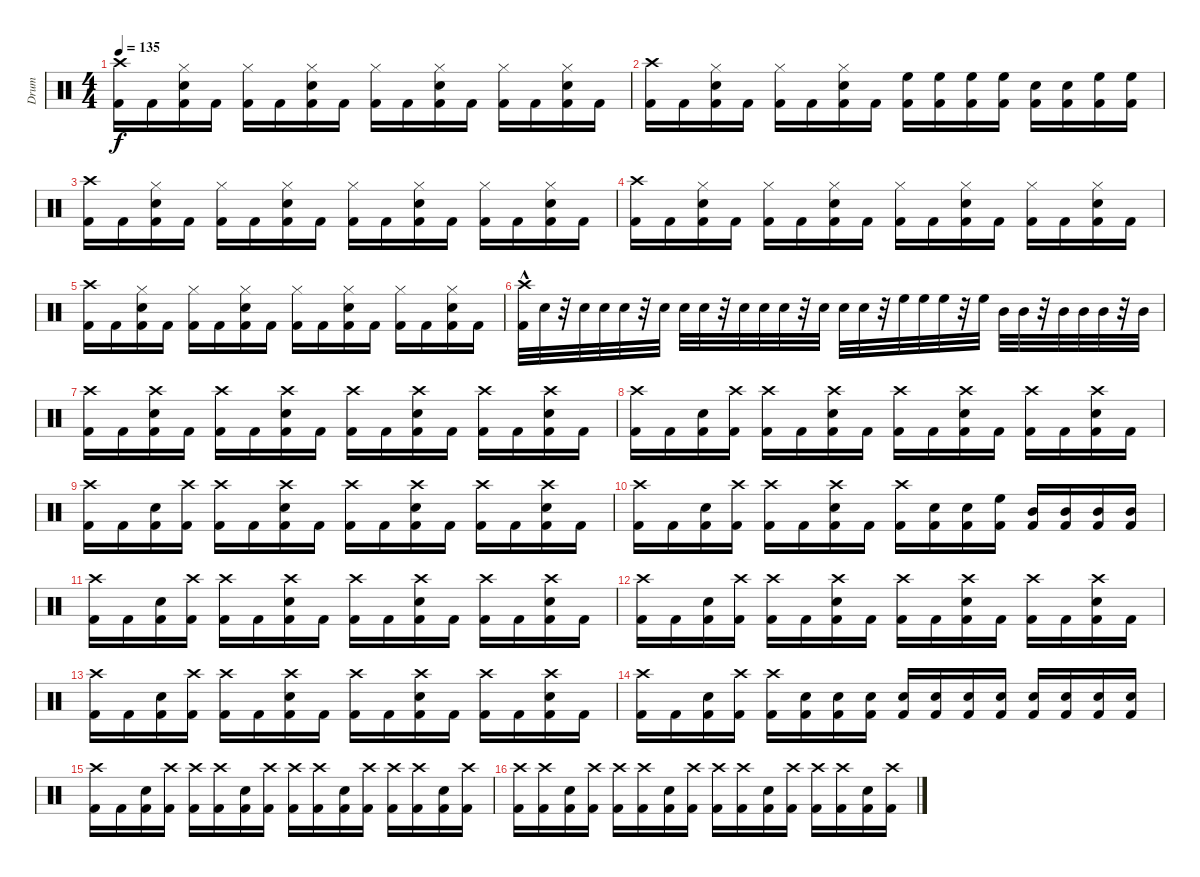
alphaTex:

\track ("Drum" "Drum") {instrument percussion}
\staff {score}
\articulation defaults
\ts (4 4)
\tempo 135
\clef neutral
\ks c
("Kick (hit) 2" "Crash high (hit)").16{dy f} "Kick (hit) 2".16 ("Kick (hit) 2" "Hi-Hat (closed)" "Snare (hit) 2").16 "Kick (hit) 2".16 ("Kick (hit) 2" "Hi-Hat (closed)").16 "Kick (hit) 2".16 ("Kick (hit) 2" "Hi-Hat (closed)" "Snare (hit) 2").16 "Kick (hit) 2".16 ("Kick (hit) 2" "Hi-Hat (closed)").16 "Kick (hit) 2".16 ("Kick (hit) 2" "Hi-Hat (closed)" "Snare (hit) 2").16 "Kick (hit) 2".16 ("Kick (hit) 2" "Hi-Hat (closed)").16 "Kick (hit) 2".16 ("Kick (hit) 2" "Hi-Hat (closed)" "Snare (hit) 2").16 "Kick (hit) 2".16 |
("Kick (hit) 2" "Crash high (hit)").16 "Kick (hit) 2".16 ("Kick (hit) 2" "Hi-Hat (closed)" "Snare (hit) 2").16 "Kick (hit) 2".16 ("Kick (hit) 2" "Hi-Hat (closed)").16 "Kick (hit) 2".16 ("Kick (hit) 2" "Hi-Hat (closed)" "Snare (hit) 2").16 "Kick (hit) 2".16 ("Kick (hit) 2" "High Floor Tom (hit)").16 ("Kick (hit) 2" "High Floor Tom (hit)").16 ("Kick (hit) 2" "High Floor Tom (hit)").16 ("Kick (hit) 2" "High Floor Tom (hit)").16 ("Kick (hit) 2" "Snare (hit) 2").16 ("Kick (hit) 2" "Snare (hit) 2").16 ("Kick (hit) 2" "High Floor Tom (hit)").16 ("Kick (hit) 2" "High Floor Tom (hit)").16 |
("Kick (hit) 2" "Crash high (hit)").16 "Kick (hit) 2".16 ("Kick (hit) 2" "Hi-Hat (closed)" "Snare (hit) 2").16 "Kick (hit) 2".16 ("Kick (hit) 2" "Hi-Hat (closed)").16 "Kick (hit) 2".16 ("Kick (hit) 2" "Hi-Hat (closed)" "Snare (hit) 2").16 "Kick (hit) 2".16 ("Kick (hit) 2" "Hi-Hat (closed)").16 "Kick (hit) 2".16 ("Kick (hit) 2" "Hi-Hat (closed)" "Snare (hit) 2").16 "Kick (hit) 2".16 ("Kick (hit) 2" "Hi-Hat (closed)").16 "Kick (hit) 2".16 ("Kick (hit) 2" "Hi-Hat (closed)" "Snare (hit) 2").16 "Kick (hit) 2".16 |
("Kick (hit) 2" "Crash high (hit)").16 "Kick (hit) 2".16 ("Kick (hit) 2" "Hi-Hat (closed)" "Snare (hit) 2").16 "Kick (hit) 2".16 ("Kick (hit) 2" "Hi-Hat (closed)").16 "Kick (hit) 2".16 ("Kick (hit) 2" "Hi-Hat (closed)" "Snare (hit) 2").16 "Kick (hit) 2".16 ("Kick (hit) 2" "Hi-Hat (closed)").16 "Kick (hit) 2".16 ("Kick (hit) 2" "Hi-Hat (closed)" "Snare (hit) 2").16 "Kick (hit) 2".16 ("Kick (hit) 2" "Hi-Hat (closed)").16 "Kick (hit) 2".16 ("Kick (hit) 2" "Hi-Hat (closed)" "Snare (hit) 2").16 "Kick (hit) 2".16 |
("Kick (hit) 2" "Crash high (hit)").16 "Kick (hit) 2".16 ("Kick (hit) 2" "Hi-Hat (closed)" "Snare (hit) 2").16 "Kick (hit) 2".16 ("Kick (hit) 2" "Hi-Hat (closed)").16 "Kick (hit) 2".16 ("Kick (hit) 2" "Hi-Hat (closed)" "Snare (hit) 2").16 "Kick (hit) 2".16 ("Kick (hit) 2" "Hi-Hat (closed)").16 "Kick (hit) 2".16 ("Kick (hit) 2" "Hi-Hat (closed)" "Snare (hit) 2").16 "Kick (hit) 2".16 ("Kick (hit) 2" "Hi-Hat (closed)").16 "Kick (hit) 2".16 ("Kick (hit) 2" "Hi-Hat (closed)" "Snare (hit) 2").16 "Kick (hit) 2".16 |
("Kick (hit) 2"{hac} "Crash high (hit)").32 "Snare (hit) 2".32 r.32 "Snare (hit) 2".32 "Snare (hit) 2".32 "Snare (hit) 2".32 r.32 "Snare (hit) 2".32 "Snare (hit) 2".32 "Snare (hit) 2".32 r.32 "Snare (hit) 2".32 "Snare (hit) 2".32 "Snare (hit) 2".32 r.32 "Snare (hit) 2".32 "Snare (hit) 2".32 "Snare (hit) 2".32 r.32 "High Floor Tom (hit)".32 "High Floor Tom (hit)".32 "High Floor Tom (hit)".32 r.32 "High Floor Tom (hit)".32 "Mid Tom (hit)".32 "Mid Tom (hit)".32 r.32 "Mid Tom (hit)".32 "Mid Tom (hit)".32 "Mid Tom (hit)".32 r.32 "Mid Tom (hit)".32 |
("Kick (hit) 2" "Crash high (hit)").16 "Kick (hit) 2".16 ("Kick (hit) 2" "Crash high (hit)" "Snare (hit) 2").16 "Kick (hit) 2".16 ("Kick (hit) 2" "Crash high (hit)").16 "Kick (hit) 2".16 ("Kick (hit) 2" "Crash high (hit)" "Snare (hit) 2").16 "Kick (hit) 2".16 ("Kick (hit) 2" "Crash high (hit)").16 "Kick (hit) 2".16 ("Kick (hit) 2" "Crash high (hit)" "Snare (hit) 2").16 "Kick (hit) 2".16 ("Kick (hit) 2" "Crash high (hit)").16 "Kick (hit) 2".16 ("Kick (hit) 2" "Crash high (hit)" "Snare (hit) 2").16 "Kick (hit) 2".16 |
("Kick (hit) 2" "Crash high (hit)").16 "Kick (hit) 2".16 ("Kick (hit) 2" "Snare (hit) 2").16 ("Kick (hit) 2" "Crash high (hit)").16 ("Kick (hit) 2" "Crash high (hit)").16 "Kick (hit) 2".16 ("Kick (hit) 2" "Crash high (hit)" "Snare (hit) 2").16 "Kick (hit) 2".16 ("Kick (hit) 2" "Crash high (hit)").16 "Kick (hit) 2".16 ("Kick (hit) 2" "Crash high (hit)" "Snare (hit) 2").16 "Kick (hit) 2".16 ("Kick (hit) 2" "Crash high (hit)").16 "Kick (hit) 2".16 ("Kick (hit) 2" "Crash high (hit)" "Snare (hit) 2").16 "Kick (hit) 2".16 |
("Kick (hit) 2" "Crash high (hit)").16 "Kick (hit) 2".16 ("Kick (hit) 2" "Snare (hit) 2").16 ("Kick (hit) 2" "Crash high (hit)").16 ("Kick (hit) 2" "Crash high (hit)").16 "Kick (hit) 2".16 ("Kick (hit) 2" "Crash high (hit)" "Snare (hit) 2").16 "Kick (hit) 2".16 ("Kick (hit) 2" "Crash high (hit)").16 "Kick (hit) 2".16 ("Kick (hit) 2" "Crash high (hit)" "Snare (hit) 2").16 "Kick (hit) 2".16 ("Kick (hit) 2" "Crash high (hit)").16 "Kick (hit) 2".16 ("Kick (hit) 2" "Crash high (hit)" "Snare (hit) 2").16 "Kick (hit) 2".16 |
("Kick (hit) 2" "Crash high (hit)").16 "Kick (hit) 2".16 ("Kick (hit) 2" "Snare (hit) 2").16 ("Kick (hit) 2" "Crash high (hit)").16 ("Kick (hit) 2" "Crash high (hit)").16 "Kick (hit) 2".16 ("Kick (hit) 2" "Crash high (hit)" "Snare (hit) 2").16 "Kick (hit) 2".16 ("Kick (hit) 2" "Crash high (hit)").16 ("Kick (hit) 2" "Snare (hit) 2").16 ("Kick (hit) 2" "Snare (hit) 2").16 ("Kick (hit) 2" "High Floor Tom (hit)").16 ("Kick (hit) 2" "Mid Tom (hit)").16 ("Kick (hit) 2" "Mid Tom (hit)").16 ("Kick (hit) 2" "Mid Tom (hit)").16 ("Kick (hit) 2" "Mid Tom (hit)").16 |
("Kick (hit) 2" "Crash high (hit)").16 "Kick (hit) 2".16 ("Kick (hit) 2" "Snare (hit) 2").16 ("Kick (hit) 2" "Crash high (hit)").16 ("Kick (hit) 2" "Crash high (hit)").16 "Kick (hit) 2".16 ("Kick (hit) 2" "Crash high (hit)" "Snare (hit) 2").16 "Kick (hit) 2".16 ("Kick (hit) 2" "Crash high (hit)").16 "Kick (hit) 2".16 ("Kick (hit) 2" "Crash high (hit)" "Snare (hit) 2").16 "Kick (hit) 2".16 ("Kick (hit) 2" "Crash high (hit)").16 "Kick (hit) 2".16 ("Kick (hit) 2" "Crash high (hit)" "Snare (hit) 2").16 "Kick (hit) 2".16 |
("Kick (hit) 2" "Crash high (hit)").16 "Kick (hit) 2".16 ("Kick (hit) 2" "Snare (hit) 2").16 ("Kick (hit) 2" "Crash high (hit)").16 ("Kick (hit) 2" "Crash high (hit)").16 "Kick (hit) 2".16 ("Kick (hit) 2" "Crash high (hit)" "Snare (hit) 2").16 "Kick (hit) 2".16 ("Kick (hit) 2" "Crash high (hit)").16 "Kick (hit) 2".16 ("Kick (hit) 2" "Crash high (hit)" "Snare (hit) 2").16 "Kick (hit) 2".16 ("Kick (hit) 2" "Crash high (hit)").16 "Kick (hit) 2".16 ("Kick (hit) 2" "Crash high (hit)" "Snare (hit) 2").16 "Kick (hit) 2".16 |
("Kick (hit) 2" "Crash high (hit)").16 "Kick (hit) 2".16 ("Kick (hit) 2" "Snare (hit) 2").16 ("Kick (hit) 2" "Crash high (hit)").16 ("Kick (hit) 2" "Crash high (hit)").16 "Kick (hit) 2".16 ("Kick (hit) 2" "Crash high (hit)" "Snare (hit) 2").16 "Kick (hit) 2".16 ("Kick (hit) 2" "Crash high (hit)").16 "Kick (hit) 2".16 ("Kick (hit) 2" "Crash high (hit)" "Snare (hit) 2").16 "Kick (hit) 2".16 ("Kick (hit) 2" "Crash high (hit)").16 "Kick (hit) 2".16 ("Kick (hit) 2" "Crash high (hit)" "Snare (hit) 2").16 "Kick (hit) 2".16 |
("Crash high (hit)" "Kick (hit) 2").16 "Kick (hit) 2".16 ("Snare (hit) 2" "Kick (hit) 2").16 ("Crash high (hit)" "Kick (hit) 2").16 ("Kick (hit) 2" "Crash high (hit)").16 ("Kick (hit) 2" "Snare (hit) 2").16 ("Kick (hit) 2" "Snare (hit) 2").16 ("Kick (hit) 2" "Snare (hit) 2").16 ("Kick (hit) 2" "Snare (hit) 2").16 ("Kick (hit) 2" "Snare (hit) 2").16 ("Kick (hit) 2" "Snare (hit) 2").16 ("Kick (hit) 2" "Snare (hit) 2").16 ("Kick (hit) 2" "Snare (hit) 2").16 ("Kick (hit) 2" "Snare (hit) 2").16 ("Kick (hit) 2" "Snare (hit) 2").16 ("Kick (hit) 2" "Snare (hit) 2").16 |
("Crash high (hit)" "Kick (hit) 2").16 "Kick (hit) 2".16 ("Kick (hit) 2" "Snare (hit) 2").16 ("Kick (hit) 2" "Crash high (hit)").16 ("Kick (hit) 2" "Crash high (hit)").16 ("Kick (hit) 2" "Crash high (hit)").16 ("Kick (hit) 2" "Snare (hit) 2").16 ("Kick (hit) 2" "Crash high (hit)").16 ("Kick (hit) 2" "Crash high (hit)").16 ("Kick (hit) 2" "Crash high (hit)").16 ("Kick (hit) 2" "Snare (hit) 2").16 ("Kick (hit) 2" "Crash high (hit)").16 ("Kick (hit) 2" "Crash high (hit)").16 ("Kick (hit) 2" "Crash high (hit)").16 ("Kick (hit) 2" "Snare (hit) 2").16 ("Kick (hit) 2" "Crash high (hit)").16 |
("Kick (hit) 2" "Crash high (hit)").16 ("Kick (hit) 2" "Crash high (hit)").16 ("Kick (hit) 2" "Snare (hit) 2").16 ("Kick (hit) 2" "Crash high (hit)").16 ("Kick (hit) 2" "Crash high (hit)").16 ("Kick (hit) 2" "Crash high (hit)").16 ("Kick (hit) 2" "Snare (hit) 2").16 ("Kick (hit) 2" "Crash high (hit)").16 ("Kick (hit) 2" "Crash high (hit)").16 ("Kick (hit) 2" "Crash high (hit)").16 ("Kick (hit) 2" "Snare (hit) 2").16 ("Kick (hit) 2" "Crash high (hit)").16 ("Kick (hit) 2" "Crash high (hit)").16 ("Kick (hit) 2" "Crash high (hit)").16 ("Kick (hit) 2" "Snare (hit) 2").16 ("Kick (hit) 2" "Crash high (hit)").16
